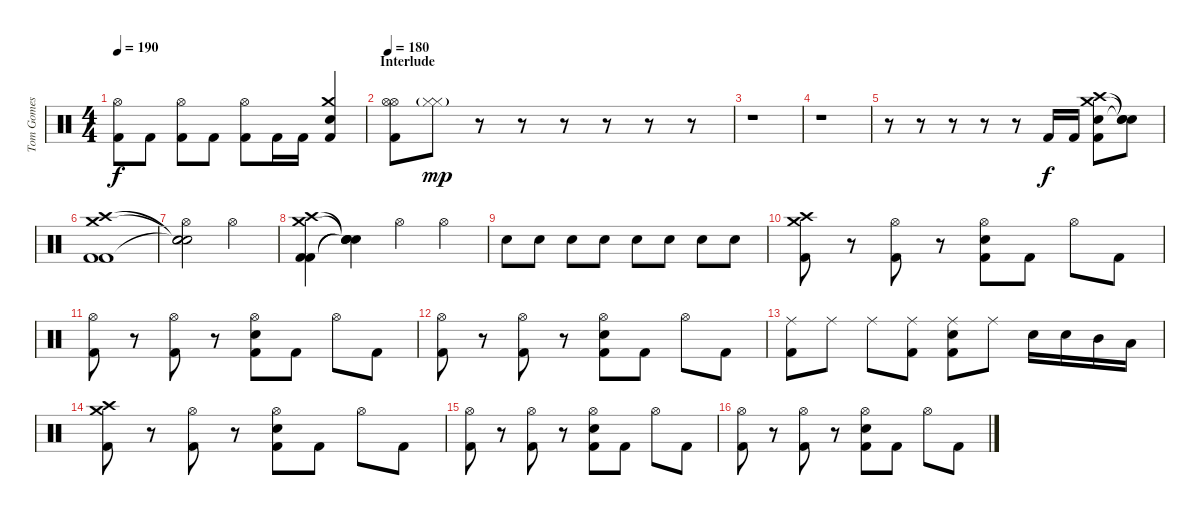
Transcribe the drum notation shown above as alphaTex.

\track ("Tom Gomes" "Tom Gomes") {instrument percussion}
\staff {score}
\articulation defaults
\ts (4 4)
\tempo 190
\clef neutral
\ks c
("Hi-Hat (open)" "Kick (hit) 2").8{dy f} "Kick (hit) 2".8 ("Hi-Hat (open)" "Kick (hit) 2").8 "Kick (hit) 2".8 ("Hi-Hat (open)" "Kick (hit) 2").8 "Kick (hit) 2".16 "Kick (hit) 2".16 ("Crash medium (hit)" "Snare (hit) 2" "Kick (hit) 2").4 |
\section ("" "Interlude")
\tempo 180
("Hi-Hat (open)" "Hi-Hat (open)" "Kick (hit) 2").8 ("Hi-Hat (closed)"{g} "Hi-Hat (closed)"{g}).8{dy mp} r.8 r.8 r.8 r.8 r.8 r.8 |
r.1 |
r.1 |
r.8 r.8 r.8 r.8 r.8 "Kick (hit) 2".16{dy f} "Kick (hit) 2".16 ("Crash medium (hit)" "Crash high (hit)" "Snare (hit) 2" "Kick (hit) 2").8 ("Snare (hit)"{t} "Snare (hit)"{t} "Snare (hit)"{t}).8 |
("Crash high (hit)" "Crash medium (hit)" "Kick (hit) 2" "Kick (hit) 2").1 |
("Snare (hit)"{t} "Snare (hit)"{t} "Snare (hit)"{t} "Hi-Hat (open)").2 "Hi-Hat (open)".2 |
("Crash high (hit)" "Crash medium (hit)" "Kick (hit) 2" "Kick (hit) 2").4 ("Snare (hit)"{t} "Snare (hit)"{t} "Snare (hit)"{t} "Snare (hit)"{t}).4 "Hi-Hat (open)".4 "Hi-Hat (open)".4 |
"Snare (hit) 2".8 "Snare (hit) 2".8 "Snare (hit) 2".8 "Snare (hit) 2".8 "Snare (hit) 2".8 "Snare (hit) 2".8 "Snare (hit) 2".8 "Snare (hit) 2".8 |
("Crash high (hit)" "Crash medium (hit)" "Kick (hit) 2").8 r.8 ("Hi-Hat (open)" "Kick (hit) 2").8 r.8 ("Hi-Hat (open)" "Snare (hit) 2" "Kick (hit) 2").8 "Kick (hit) 2".8 "Hi-Hat (open)".8 "Kick (hit) 2".8 |
("Hi-Hat (open)" "Kick (hit) 2").8 r.8 ("Hi-Hat (open)" "Kick (hit) 2").8 r.8 ("Hi-Hat (open)" "Snare (hit) 2" "Kick (hit) 2").8 "Kick (hit) 2".8 "Hi-Hat (open)".8 "Kick (hit) 2".8 |
("Hi-Hat (open)" "Kick (hit) 2").8 r.8 ("Hi-Hat (open)" "Kick (hit) 2").8 r.8 ("Hi-Hat (open)" "Snare (hit) 2" "Kick (hit) 2").8 "Kick (hit) 2".8 "Hi-Hat (open)".8 "Kick (hit) 2".8 |
("Ride (middle)" "Kick (hit) 2").8 "Ride (middle)".8 "Ride (middle)".8 ("Ride (middle)" "Kick (hit) 2").8 ("Ride (middle)" "Snare (hit) 2" "Kick (hit) 2").8 "Ride (middle)".8 "Snare (hit) 2".16 "Snare (hit) 2".16 "Mid Tom (hit)".16 "Low Tom (hit)".16 |
("Crash high (hit)" "Crash medium (hit)" "Kick (hit) 2").8 r.8 ("Hi-Hat (open)" "Kick (hit) 2").8 r.8 ("Hi-Hat (open)" "Snare (hit) 2" "Kick (hit) 2").8 "Kick (hit) 2".8 "Hi-Hat (open)".8 "Kick (hit) 2".8 |
("Hi-Hat (open)" "Kick (hit) 2").8 r.8 ("Hi-Hat (open)" "Kick (hit) 2").8 r.8 ("Hi-Hat (open)" "Snare (hit) 2" "Kick (hit) 2").8 "Kick (hit) 2".8 "Hi-Hat (open)".8 "Kick (hit) 2".8 |
("Hi-Hat (open)" "Kick (hit) 2").8 r.8 ("Hi-Hat (open)" "Kick (hit) 2").8 r.8 ("Hi-Hat (open)" "Snare (hit) 2" "Kick (hit) 2").8 "Kick (hit) 2".8 "Hi-Hat (open)".8 "Kick (hit) 2".8
